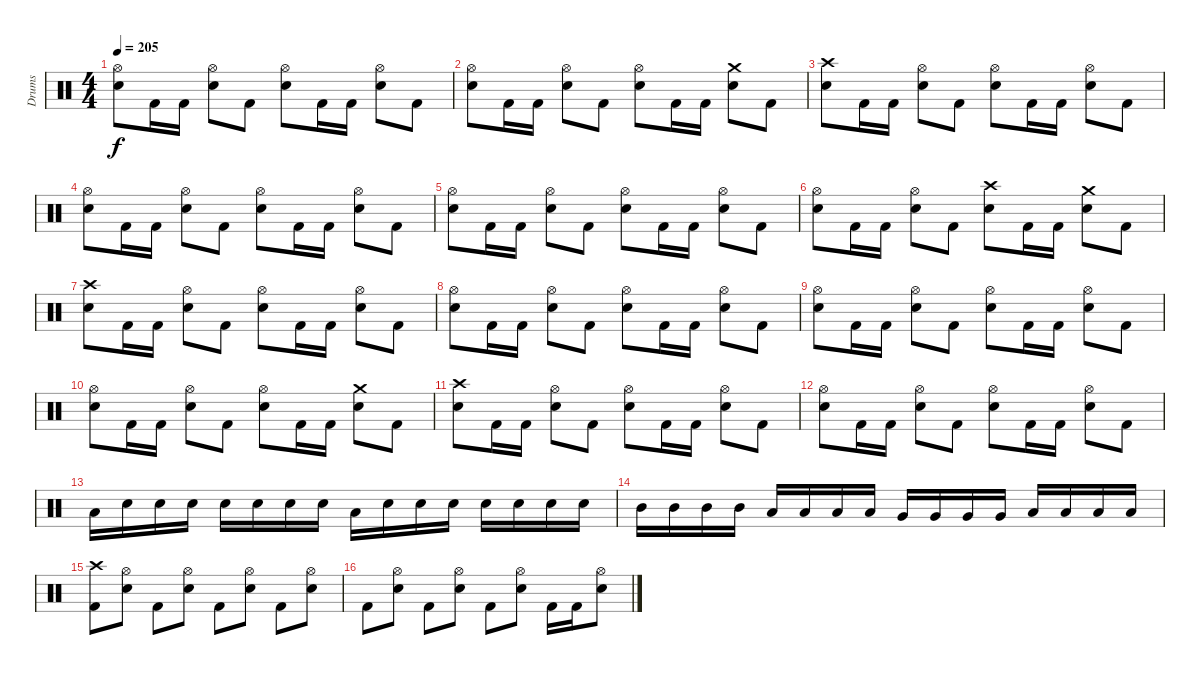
\track ("Drums" "Drums") {instrument percussion bank 169}
\staff {score}
\articulation defaults
\ts (4 4)
\tempo 205
\clef neutral
\ks c
("Hi-Hat (open)" "Snare (hit) 2").8{dy f} "Kick (hit) 2".16 "Kick (hit) 2".16 ("Hi-Hat (open)" "Snare (hit) 2").8 "Kick (hit) 2".8 ("Hi-Hat (open)" "Snare (hit) 2").8 "Kick (hit) 2".16 "Kick (hit) 2".16 ("Hi-Hat (open)" "Snare (hit) 2").8 "Kick (hit) 2".8 |
("Hi-Hat (open)" "Snare (hit) 2").8 "Kick (hit) 2".16 "Kick (hit) 2".16 ("Hi-Hat (open)" "Snare (hit) 2").8 "Kick (hit) 2".8 ("Hi-Hat (open)" "Snare (hit) 2").8 "Kick (hit) 2".16 "Kick (hit) 2".16 ("Crash medium (hit)" "Snare (hit) 2").8 "Kick (hit) 2".8 |
("Crash high (hit)" "Snare (hit) 2").8 "Kick (hit) 2".16 "Kick (hit) 2".16 ("Hi-Hat (open)" "Snare (hit) 2").8 "Kick (hit) 2".8 ("Hi-Hat (open)" "Snare (hit) 2").8 "Kick (hit) 2".16 "Kick (hit) 2".16 ("Hi-Hat (open)" "Snare (hit) 2").8 "Kick (hit) 2".8 |
("Hi-Hat (open)" "Snare (hit) 2").8 "Kick (hit) 2".16 "Kick (hit) 2".16 ("Hi-Hat (open)" "Snare (hit) 2").8 "Kick (hit) 2".8 ("Hi-Hat (open)" "Snare (hit) 2").8 "Kick (hit) 2".16 "Kick (hit) 2".16 ("Hi-Hat (open)" "Snare (hit) 2").8 "Kick (hit) 2".8 |
("Hi-Hat (open)" "Snare (hit) 2").8 "Kick (hit) 2".16 "Kick (hit) 2".16 ("Hi-Hat (open)" "Snare (hit) 2").8 "Kick (hit) 2".8 ("Hi-Hat (open)" "Snare (hit) 2").8 "Kick (hit) 2".16 "Kick (hit) 2".16 ("Hi-Hat (open)" "Snare (hit) 2").8 "Kick (hit) 2".8 |
("Hi-Hat (open)" "Snare (hit) 2").8 "Kick (hit) 2".16 "Kick (hit) 2".16 ("Hi-Hat (open)" "Snare (hit) 2").8 "Kick (hit) 2".8 ("Crash high (hit)" "Snare (hit) 2").8 "Kick (hit) 2".16 "Kick (hit) 2".16 ("Crash medium (hit)" "Snare (hit) 2").8 "Kick (hit) 2".8 |
("Crash high (hit)" "Snare (hit) 2").8 "Kick (hit) 2".16 "Kick (hit) 2".16 ("Hi-Hat (open)" "Snare (hit) 2").8 "Kick (hit) 2".8 ("Hi-Hat (open)" "Snare (hit) 2").8 "Kick (hit) 2".16 "Kick (hit) 2".16 ("Hi-Hat (open)" "Snare (hit) 2").8 "Kick (hit) 2".8 |
("Hi-Hat (open)" "Snare (hit) 2").8 "Kick (hit) 2".16 "Kick (hit) 2".16 ("Hi-Hat (open)" "Snare (hit) 2").8 "Kick (hit) 2".8 ("Hi-Hat (open)" "Snare (hit) 2").8 "Kick (hit) 2".16 "Kick (hit) 2".16 ("Hi-Hat (open)" "Snare (hit) 2").8 "Kick (hit) 2".8 |
("Hi-Hat (open)" "Snare (hit) 2").8 "Kick (hit) 2".16 "Kick (hit) 2".16 ("Hi-Hat (open)" "Snare (hit) 2").8 "Kick (hit) 2".8 ("Hi-Hat (open)" "Snare (hit) 2").8 "Kick (hit) 2".16 "Kick (hit) 2".16 ("Hi-Hat (open)" "Snare (hit) 2").8 "Kick (hit) 2".8 |
("Hi-Hat (open)" "Snare (hit) 2").8 "Kick (hit) 2".16 "Kick (hit) 2".16 ("Hi-Hat (open)" "Snare (hit) 2").8 "Kick (hit) 2".8 ("Hi-Hat (open)" "Snare (hit) 2").8 "Kick (hit) 2".16 "Kick (hit) 2".16 ("Crash medium (hit)" "Snare (hit) 2").8 "Kick (hit) 2".8 |
("Crash high (hit)" "Snare (hit) 2").8 "Kick (hit) 2".16 "Kick (hit) 2".16 ("Hi-Hat (open)" "Snare (hit) 2").8 "Kick (hit) 2".8 ("Hi-Hat (open)" "Snare (hit) 2").8 "Kick (hit) 2".16 "Kick (hit) 2".16 ("Hi-Hat (open)" "Snare (hit) 2").8 "Kick (hit) 2".8 |
("Hi-Hat (open)" "Snare (hit) 2").8 "Kick (hit) 2".16 "Kick (hit) 2".16 ("Hi-Hat (open)" "Snare (hit) 2").8 "Kick (hit) 2".8 ("Hi-Hat (open)" "Snare (hit) 2").8 "Kick (hit) 2".16 "Kick (hit) 2".16 ("Hi-Hat (open)" "Snare (hit) 2").8 "Kick (hit) 2".8 |
"Low Tom (hit)".16 "Snare (hit) 2".16 "Snare (hit) 2".16 "Snare (hit) 2".16 "Snare (hit) 2".16 "Snare (hit) 2".16 "Snare (hit) 2".16 "Snare (hit) 2".16 "Low Tom (hit)".16 "Snare (hit) 2".16 "Snare (hit) 2".16 "Snare (hit) 2".16 "Snare (hit) 2".16 "Snare (hit) 2".16 "Snare (hit) 2".16 "Snare (hit) 2".16 |
"Mid Tom (hit)".16 "Mid Tom (hit)".16 "Mid Tom (hit)".16 "Mid Tom (hit)".16 "Low Tom (hit)".16 "Low Tom (hit)".16 "Low Tom (hit)".16 "Low Tom (hit)".16 "Very Low Tom (hit)".16 "Very Low Tom (hit)".16 "Very Low Tom (hit)".16 "Very Low Tom (hit)".16 "Low Floor Tom (hit)".16 "Low Floor Tom (hit)".16 "Low Floor Tom (hit)".16 "Low Floor Tom (hit)".16 |
("Crash high (hit)" "Kick (hit) 2").8 ("Hi-Hat (open)" "Snare (hit) 2").8 "Kick (hit) 2".8 ("Hi-Hat (open)" "Snare (hit) 2").8 "Kick (hit) 2".8 ("Hi-Hat (open)" "Snare (hit) 2").8 "Kick (hit) 2".8 ("Hi-Hat (open)" "Snare (hit) 2").8 |
"Kick (hit) 2".8 ("Hi-Hat (open)" "Snare (hit) 2").8 "Kick (hit) 2".8 ("Hi-Hat (open)" "Snare (hit) 2").8 "Kick (hit) 2".8 ("Hi-Hat (open)" "Snare (hit) 2").8 "Kick (hit) 2".16 "Kick (hit) 2".16 ("Hi-Hat (open)" "Snare (hit) 2").8
